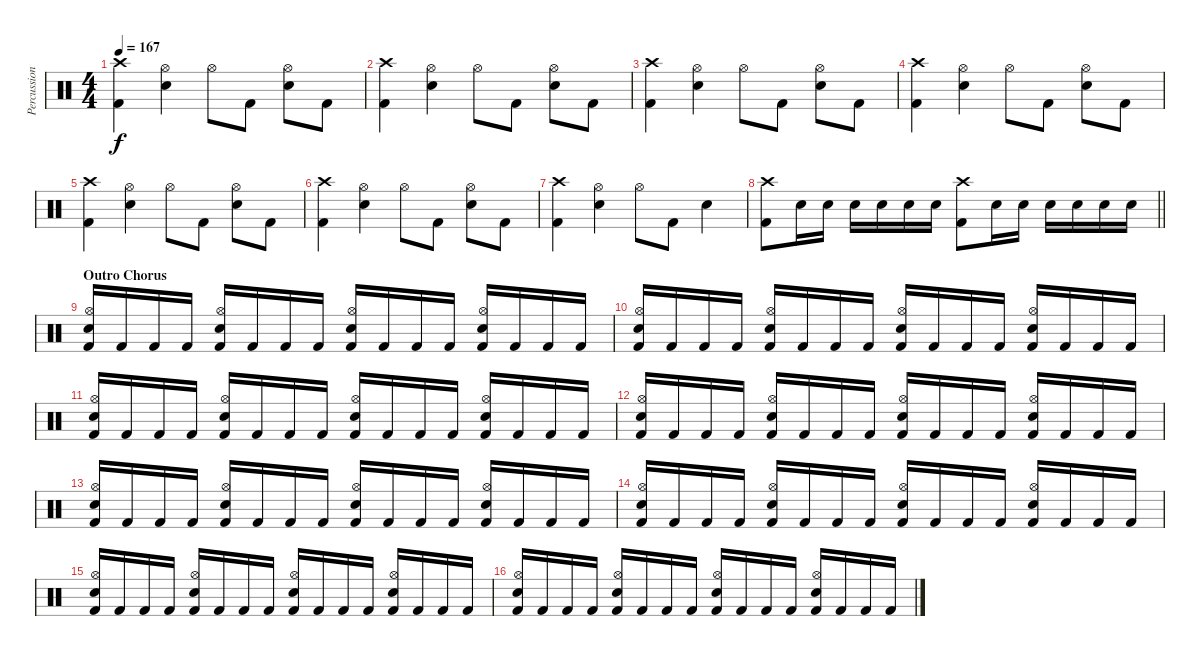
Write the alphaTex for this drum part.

\track ("Percussion" "Percussion") {instrument percussion}
\staff {score}
\articulation defaults
\ts (4 4)
\tempo 167
\clef neutral
\ks c
("Crash high (hit)" "Kick (hit) 2").4{dy f} ("Hi-Hat (open)" "Snare (hit) 2").4 "Hi-Hat (open)".8 "Kick (hit) 2".8 ("Hi-Hat (open)" "Snare (hit) 2").8 "Kick (hit) 2".8 |
("Crash high (hit)" "Kick (hit) 2").4 ("Hi-Hat (open)" "Snare (hit) 2").4 "Hi-Hat (open)".8 "Kick (hit) 2".8 ("Hi-Hat (open)" "Snare (hit) 2").8 "Kick (hit) 2".8 |
("Crash high (hit)" "Kick (hit) 2").4 ("Hi-Hat (open)" "Snare (hit) 2").4 "Hi-Hat (open)".8 "Kick (hit) 2".8 ("Hi-Hat (open)" "Snare (hit) 2").8 "Kick (hit) 2".8 |
("Crash high (hit)" "Kick (hit) 2").4 ("Hi-Hat (open)" "Snare (hit) 2").4 "Hi-Hat (open)".8 "Kick (hit) 2".8 ("Hi-Hat (open)" "Snare (hit) 2").8 "Kick (hit) 2".8 |
("Crash high (hit)" "Kick (hit) 2").4 ("Hi-Hat (open)" "Snare (hit) 2").4 "Hi-Hat (open)".8 "Kick (hit) 2".8 ("Hi-Hat (open)" "Snare (hit) 2").8 "Kick (hit) 2".8 |
("Crash high (hit)" "Kick (hit) 2").4 ("Hi-Hat (open)" "Snare (hit) 2").4 "Hi-Hat (open)".8 "Kick (hit) 2".8 ("Hi-Hat (open)" "Snare (hit) 2").8 "Kick (hit) 2".8 |
("Crash high (hit)" "Kick (hit) 2").4 ("Hi-Hat (open)" "Snare (hit) 2").4 "Hi-Hat (open)".8 "Kick (hit) 2".8 "Snare (hit) 2".4 |
\barLineRight lightlight
("Crash high (hit)" "Kick (hit) 2").8 "Snare (hit) 2".16 "Snare (hit) 2".16 "Snare (hit) 2".16 "Snare (hit) 2".16 "Snare (hit) 2".16 "Snare (hit) 2".16 ("Crash high (hit)" "Kick (hit) 2").8 "Snare (hit) 2".16 "Snare (hit) 2".16 "Snare (hit) 2".16 "Snare (hit) 2".16 "Snare (hit) 2".16 "Snare (hit) 2".16 |
\section ("" "Outro Chorus")
("Hi-Hat (open)" "Snare (hit) 2" "Kick (hit) 2").16 "Kick (hit) 2".16 "Kick (hit) 2".16 "Kick (hit) 2".16 ("Hi-Hat (open)" "Snare (hit) 2" "Kick (hit) 2").16 "Kick (hit) 2".16 "Kick (hit) 2".16 "Kick (hit) 2".16 ("Hi-Hat (open)" "Snare (hit) 2" "Kick (hit) 2").16 "Kick (hit) 2".16 "Kick (hit) 2".16 "Kick (hit) 2".16 ("Hi-Hat (open)" "Snare (hit) 2" "Kick (hit) 2").16 "Kick (hit) 2".16 "Kick (hit) 2".16 "Kick (hit) 2".16 |
("Hi-Hat (open)" "Snare (hit) 2" "Kick (hit) 2").16 "Kick (hit) 2".16 "Kick (hit) 2".16 "Kick (hit) 2".16 ("Hi-Hat (open)" "Snare (hit) 2" "Kick (hit) 2").16 "Kick (hit) 2".16 "Kick (hit) 2".16 "Kick (hit) 2".16 ("Hi-Hat (open)" "Snare (hit) 2" "Kick (hit) 2").16 "Kick (hit) 2".16 "Kick (hit) 2".16 "Kick (hit) 2".16 ("Hi-Hat (open)" "Snare (hit) 2" "Kick (hit) 2").16 "Kick (hit) 2".16 "Kick (hit) 2".16 "Kick (hit) 2".16 |
("Hi-Hat (open)" "Snare (hit) 2" "Kick (hit) 2").16 "Kick (hit) 2".16 "Kick (hit) 2".16 "Kick (hit) 2".16 ("Hi-Hat (open)" "Snare (hit) 2" "Kick (hit) 2").16 "Kick (hit) 2".16 "Kick (hit) 2".16 "Kick (hit) 2".16 ("Hi-Hat (open)" "Snare (hit) 2" "Kick (hit) 2").16 "Kick (hit) 2".16 "Kick (hit) 2".16 "Kick (hit) 2".16 ("Hi-Hat (open)" "Snare (hit) 2" "Kick (hit) 2").16 "Kick (hit) 2".16 "Kick (hit) 2".16 "Kick (hit) 2".16 |
("Hi-Hat (open)" "Snare (hit) 2" "Kick (hit) 2").16 "Kick (hit) 2".16 "Kick (hit) 2".16 "Kick (hit) 2".16 ("Hi-Hat (open)" "Snare (hit) 2" "Kick (hit) 2").16 "Kick (hit) 2".16 "Kick (hit) 2".16 "Kick (hit) 2".16 ("Hi-Hat (open)" "Snare (hit) 2" "Kick (hit) 2").16 "Kick (hit) 2".16 "Kick (hit) 2".16 "Kick (hit) 2".16 ("Hi-Hat (open)" "Snare (hit) 2" "Kick (hit) 2").16 "Kick (hit) 2".16 "Kick (hit) 2".16 "Kick (hit) 2".16 |
("Hi-Hat (open)" "Snare (hit) 2" "Kick (hit) 2").16 "Kick (hit) 2".16 "Kick (hit) 2".16 "Kick (hit) 2".16 ("Hi-Hat (open)" "Snare (hit) 2" "Kick (hit) 2").16 "Kick (hit) 2".16 "Kick (hit) 2".16 "Kick (hit) 2".16 ("Hi-Hat (open)" "Snare (hit) 2" "Kick (hit) 2").16 "Kick (hit) 2".16 "Kick (hit) 2".16 "Kick (hit) 2".16 ("Hi-Hat (open)" "Snare (hit) 2" "Kick (hit) 2").16 "Kick (hit) 2".16 "Kick (hit) 2".16 "Kick (hit) 2".16 |
("Hi-Hat (open)" "Snare (hit) 2" "Kick (hit) 2").16 "Kick (hit) 2".16 "Kick (hit) 2".16 "Kick (hit) 2".16 ("Hi-Hat (open)" "Snare (hit) 2" "Kick (hit) 2").16 "Kick (hit) 2".16 "Kick (hit) 2".16 "Kick (hit) 2".16 ("Hi-Hat (open)" "Snare (hit) 2" "Kick (hit) 2").16 "Kick (hit) 2".16 "Kick (hit) 2".16 "Kick (hit) 2".16 ("Hi-Hat (open)" "Snare (hit) 2" "Kick (hit) 2").16 "Kick (hit) 2".16 "Kick (hit) 2".16 "Kick (hit) 2".16 |
("Hi-Hat (open)" "Snare (hit) 2" "Kick (hit) 2").16 "Kick (hit) 2".16 "Kick (hit) 2".16 "Kick (hit) 2".16 ("Hi-Hat (open)" "Snare (hit) 2" "Kick (hit) 2").16 "Kick (hit) 2".16 "Kick (hit) 2".16 "Kick (hit) 2".16 ("Hi-Hat (open)" "Snare (hit) 2" "Kick (hit) 2").16 "Kick (hit) 2".16 "Kick (hit) 2".16 "Kick (hit) 2".16 ("Hi-Hat (open)" "Snare (hit) 2" "Kick (hit) 2").16 "Kick (hit) 2".16 "Kick (hit) 2".16 "Kick (hit) 2".16 |
("Hi-Hat (open)" "Snare (hit) 2" "Kick (hit) 2").16 "Kick (hit) 2".16 "Kick (hit) 2".16 "Kick (hit) 2".16 ("Hi-Hat (open)" "Snare (hit) 2" "Kick (hit) 2").16 "Kick (hit) 2".16 "Kick (hit) 2".16 "Kick (hit) 2".16 ("Hi-Hat (open)" "Snare (hit) 2" "Kick (hit) 2").16 "Kick (hit) 2".16 "Kick (hit) 2".16 "Kick (hit) 2".16 ("Hi-Hat (open)" "Snare (hit) 2" "Kick (hit) 2").16 "Kick (hit) 2".16 "Kick (hit) 2".16 "Kick (hit) 2".16
